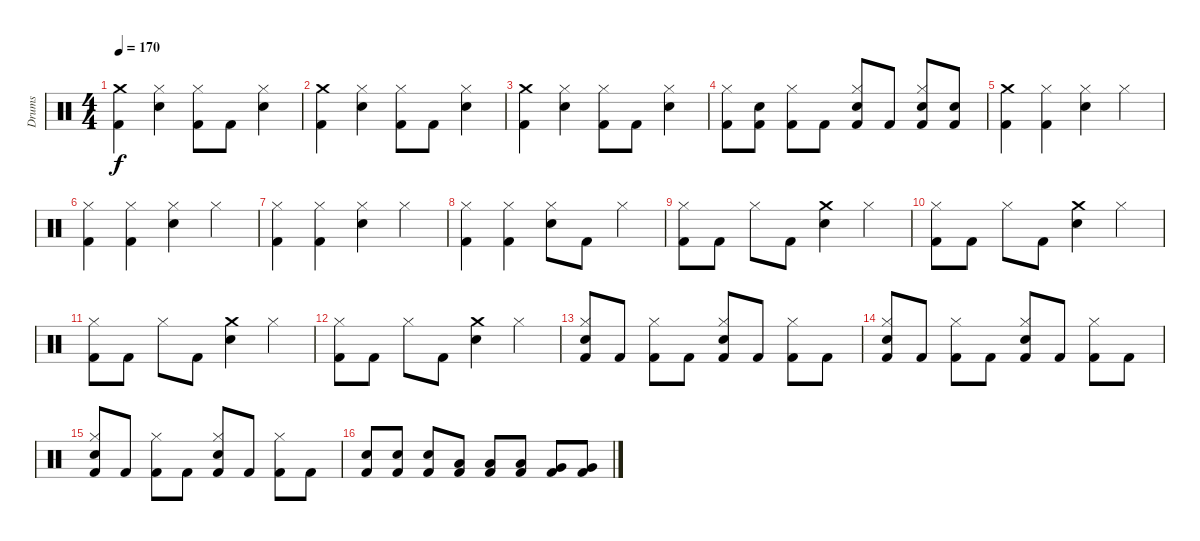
\track ("Drums" "Drums") {instrument percussion}
\staff {score}
\articulation defaults
\ts (4 4)
\tempo 170
\clef neutral
\ks c
("Crash medium (hit)" "Kick (hit) 2").4{dy f} ("Hi-Hat (closed)" "Electric Snare (hit)").4 ("Hi-Hat (closed)" "Kick (hit) 2").8 "Kick (hit) 2".8 ("Hi-Hat (closed)" "Electric Snare (hit)").4 |
("Crash medium (hit)" "Kick (hit) 2").4 ("Hi-Hat (closed)" "Electric Snare (hit)").4 ("Hi-Hat (closed)" "Kick (hit) 2").8 "Kick (hit) 2".8 ("Hi-Hat (closed)" "Electric Snare (hit)").4 |
("Crash medium (hit)" "Kick (hit) 2").4 ("Hi-Hat (closed)" "Electric Snare (hit)").4 ("Hi-Hat (closed)" "Kick (hit) 2").8 "Kick (hit) 2".8 ("Hi-Hat (closed)" "Electric Snare (hit)").4 |
("Hi-Hat (closed)" "Kick (hit) 2").8 ("Electric Snare (hit)" "Kick (hit) 2").8 ("Hi-Hat (closed)" "Kick (hit) 2").8 "Kick (hit) 2".8 ("Hi-Hat (closed)" "Electric Snare (hit)" "Kick (hit) 2").8 "Kick (hit) 2".8 ("Hi-Hat (closed)" "Electric Snare (hit)" "Kick (hit) 2").8 ("Electric Snare (hit)" "Kick (hit) 2").8 |
("Crash medium (hit)" "Kick (hit) 2").4 ("Hi-Hat (closed)" "Kick (hit) 2").4 ("Hi-Hat (closed)" "Electric Snare (hit)").4 "Hi-Hat (closed)".4 |
("Hi-Hat (closed)" "Kick (hit) 2").4 ("Hi-Hat (closed)" "Kick (hit) 2").4 ("Hi-Hat (closed)" "Electric Snare (hit)").4 "Hi-Hat (closed)".4 |
("Hi-Hat (closed)" "Kick (hit) 2").4 ("Hi-Hat (closed)" "Kick (hit) 2").4 ("Hi-Hat (closed)" "Electric Snare (hit)").4 "Hi-Hat (closed)".4 |
("Hi-Hat (closed)" "Kick (hit) 2").4 ("Hi-Hat (closed)" "Kick (hit) 2").4 ("Hi-Hat (closed)" "Electric Snare (hit)").8 "Kick (hit) 2".8 "Hi-Hat (closed)".4 |
("Hi-Hat (closed)" "Kick (hit) 2").8 "Kick (hit) 2".8 "Hi-Hat (closed)".8 "Kick (hit) 2".8 ("Crash medium (hit)" "Electric Snare (hit)").4 "Hi-Hat (closed)".4 |
("Hi-Hat (closed)" "Kick (hit) 2").8 "Kick (hit) 2".8 "Hi-Hat (closed)".8 "Kick (hit) 2".8 ("Crash medium (hit)" "Electric Snare (hit)").4 "Hi-Hat (closed)".4 |
("Hi-Hat (closed)" "Kick (hit) 2").8 "Kick (hit) 2".8 "Hi-Hat (closed)".8 "Kick (hit) 2".8 ("Crash medium (hit)" "Electric Snare (hit)").4 "Hi-Hat (closed)".4 |
("Hi-Hat (closed)" "Kick (hit) 2").8 "Kick (hit) 2".8 "Hi-Hat (closed)".8 "Kick (hit) 2".8 ("Crash medium (hit)" "Electric Snare (hit)").4 "Hi-Hat (closed)".4 |
("Hi-Hat (closed)" "Electric Snare (hit)" "Kick (hit) 2").8 "Kick (hit) 2".8 ("Hi-Hat (closed)" "Kick (hit) 2").8 "Kick (hit) 2".8 ("Hi-Hat (closed)" "Electric Snare (hit)" "Kick (hit) 2").8 "Kick (hit) 2".8 ("Hi-Hat (closed)" "Kick (hit) 2").8 "Kick (hit) 2".8 |
("Hi-Hat (closed)" "Electric Snare (hit)" "Kick (hit) 2").8 "Kick (hit) 2".8 ("Hi-Hat (closed)" "Kick (hit) 2").8 "Kick (hit) 2".8 ("Hi-Hat (closed)" "Electric Snare (hit)" "Kick (hit) 2").8 "Kick (hit) 2".8 ("Hi-Hat (closed)" "Kick (hit) 2").8 "Kick (hit) 2".8 |
("Hi-Hat (closed)" "Electric Snare (hit)" "Kick (hit) 2").8 "Kick (hit) 2".8 ("Hi-Hat (closed)" "Kick (hit) 2").8 "Kick (hit) 2".8 ("Hi-Hat (closed)" "Electric Snare (hit)" "Kick (hit) 2").8 "Kick (hit) 2".8 ("Hi-Hat (closed)" "Kick (hit) 2").8 "Kick (hit) 2".8 |
("Electric Snare (hit)" "Kick (hit) 2").8 ("Electric Snare (hit)" "Kick (hit) 2").8 ("Electric Snare (hit)" "Kick (hit) 2").8 ("Low Tom (hit)" "Kick (hit) 2").8 ("Low Tom (hit)" "Kick (hit) 2").8 ("Low Tom (hit)" "Kick (hit) 2").8 ("Very Low Tom (hit)" "Kick (hit) 2").8 ("Very Low Tom (hit)" "Kick (hit) 2").8
